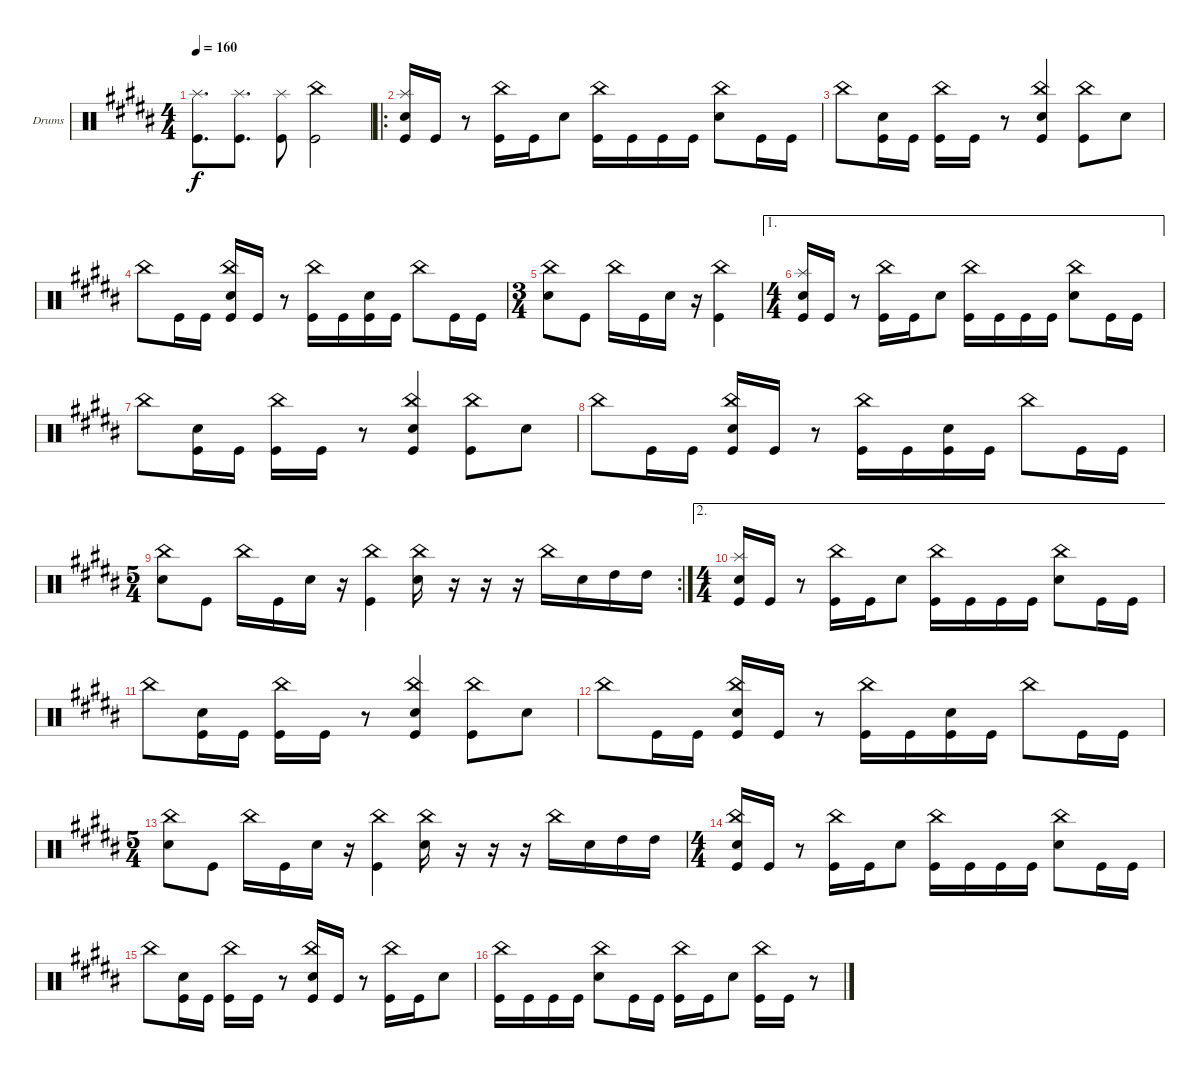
\defaultSystemsLayout 4
\bracketExtendMode groupsimilarinstruments
\firstSystemTrackNameOrientation horizontal
\otherSystemsTrackNameOrientation horizontal
\track ("Drumkit" "Drums") {instrument percussion}
\staff {score}
\articulation defaults
\ts (4 4)
\tempo 160
\clef neutral
\scale
0.333333
\ks b
("Kick (hit)" "Splash (hit)").8{d dy f} ("Kick (hit)" "Splash (hit)").8{d} ("Kick (hit)" "Splash (hit)").8 ("Kick (hit)" "China (hit)").2 |
\ro
\scale
0.377049 ("Kick (hit)" "Splash (hit)" "Snare (hit) 2").16 "Kick (hit)".16 r.8 ("China (hit)" "Kick (hit)").16 "Kick (hit)".16 "Snare (hit) 2".8 ("Kick (hit)" "China (hit)").16 "Kick (hit)".16 "Kick (hit)".16 "Kick (hit)".16 ("China (hit)" "Snare (hit) 2").8 "Kick (hit)".16 "Kick (hit)".16 |
\scale
0.311475 "China (hit)".8 ("Kick (hit)" "Snare (hit) 2").16 "Kick (hit)".16 ("Kick (hit)" "China (hit)").16 "Kick (hit)".16 r.8 ("China (hit)" "Kick (hit)" "Snare (hit) 2").4 ("Kick (hit)" "China (hit)").8 "Snare (hit) 2".8 |
\scale
0.311475 "China (hit)".8 "Kick (hit)".16 "Kick (hit)".16 ("Kick (hit)" "China (hit)" "Snare (hit) 2").16 "Kick (hit)".16 r.8 ("Kick (hit)" "China (hit)").16 "Kick (hit)".16 ("Kick (hit)" "Snare (hit) 2").16 "Kick (hit)".16 "China (hit)".8 "Kick (hit)".16 "Kick (hit)".16 |
\ts (3 4)
\scale
0.414925 ("China (hit)" "Snare (hit) 2").8 "Kick (hit)".8 "China (hit)".16 "Kick (hit)".16 "Snare (hit) 2".16 r.16 ("Kick (hit)" "China (hit)").4 |
\ae 1
\ts (4 4)
\scale
0.414925 ("Kick (hit)" "Splash (hit)" "Snare (hit) 2").16 "Kick (hit)".16 r.8 ("China (hit)" "Kick (hit)").16 "Kick (hit)".16 "Snare (hit) 2".8 ("Kick (hit)" "China (hit)").16 "Kick (hit)".16 "Kick (hit)".16 "Kick (hit)".16 ("China (hit)" "Snare (hit) 2").8 "Kick (hit)".16 "Kick (hit)".16 |
\scale
0.170149 "China (hit)".8 ("Kick (hit)" "Snare (hit) 2").16 "Kick (hit)".16 ("Kick (hit)" "China (hit)").16 "Kick (hit)".16 r.8 ("China (hit)" "Kick (hit)" "Snare (hit) 2").4 ("Kick (hit)" "China (hit)").8 "Snare (hit) 2".8 |
\scale
0.167155 "China (hit)".8 "Kick (hit)".16 "Kick (hit)".16 ("Kick (hit)" "China (hit)" "Snare (hit) 2").16 "Kick (hit)".16 r.8 ("Kick (hit)" "China (hit)").16 "Kick (hit)".16 ("Kick (hit)" "Snare (hit) 2").16 "Kick (hit)".16 "China (hit)".8 "Kick (hit)".16 "Kick (hit)".16 |
\rc 2
\ts (5 4)
\scale
0.42522 ("China (hit)" "Snare (hit) 2").8 "Kick (hit)".8 "China (hit)".16 "Kick (hit)".16 "Snare (hit) 2".16 r.16 ("Kick (hit)" "China (hit)").4 ("China (hit)" "Snare (hit) 2").16 r.16 r.16 r.16 "China (hit)".16 "Snare (hit) 2".16 "High Tom (hit)".16 "High Tom (hit)".16 |
\ae 2
\ts (4 4)
\scale
0.407625 ("Kick (hit)" "Splash (hit)" "Snare (hit) 2").16 "Kick (hit)".16 r.8 ("China (hit)" "Kick (hit)").16 "Kick (hit)".16 "Snare (hit) 2".8 ("Kick (hit)" "China (hit)").16 "Kick (hit)".16 "Kick (hit)".16 "Kick (hit)".16 ("China (hit)" "Snare (hit) 2").8 "Kick (hit)".16 "Kick (hit)".16 |
\scale
0.225296 "China (hit)".8 ("Kick (hit)" "Snare (hit) 2").16 "Kick (hit)".16 ("Kick (hit)" "China (hit)").16 "Kick (hit)".16 r.8 ("China (hit)" "Kick (hit)" "Snare (hit) 2").4 ("Kick (hit)" "China (hit)").8 "Snare (hit) 2".8 |
\scale
0.225296 "China (hit)".8 "Kick (hit)".16 "Kick (hit)".16 ("Kick (hit)" "China (hit)" "Snare (hit) 2").16 "Kick (hit)".16 r.8 ("Kick (hit)" "China (hit)").16 "Kick (hit)".16 ("Kick (hit)" "Snare (hit) 2").16 "Kick (hit)".16 "China (hit)".8 "Kick (hit)".16 "Kick (hit)".16 |
\ts (5 4)
\scale
0.549407 ("China (hit)" "Snare (hit) 2").8 "Kick (hit)".8 "China (hit)".16 "Kick (hit)".16 "Snare (hit) 2".16 r.16 ("Kick (hit)" "China (hit)").4 ("China (hit)" "Snare (hit) 2").16 r.16 r.16 r.16 "China (hit)".16 "Snare (hit) 2".16 "High Tom (hit)".16 "High Tom (hit)".16 |
\ts (4 4)
\scale
0.549407 ("Kick (hit)" "Snare (hit) 2" "China (hit)").16 "Kick (hit)".16 r.8 ("Kick (hit)" "China (hit)").16 "Kick (hit)".16 "Snare (hit) 2".8 ("Kick (hit)" "China (hit)").16 "Kick (hit)".16 "Kick (hit)".16 "Kick (hit)".16 ("China (hit)" "Snare (hit) 2").8 "Kick (hit)".16 "Kick (hit)".16 |
\scale
0.225296 "China (hit)".8 ("Kick (hit)" "Snare (hit) 2").16 "Kick (hit)".16 ("Kick (hit)" "China (hit)").16 "Kick (hit)".16 r.8 ("Kick (hit)" "Snare (hit) 2" "China (hit)").16 "Kick (hit)".16 r.8 ("Kick (hit)" "China (hit)").16 "Kick (hit)".16 "Snare (hit) 2".8 |
\scale
0.225296 ("Kick (hit)" "China (hit)").16 "Kick (hit)".16 "Kick (hit)".16 "Kick (hit)".16 ("Snare (hit) 2" "China (hit)").8 "Kick (hit)".16 "Kick (hit)".16 ("Kick (hit)" "China (hit)").16 "Kick (hit)".16 "Snare (hit) 2".8 ("China (hit)" "Kick (hit)").16 "Kick (hit)".16 r.8
